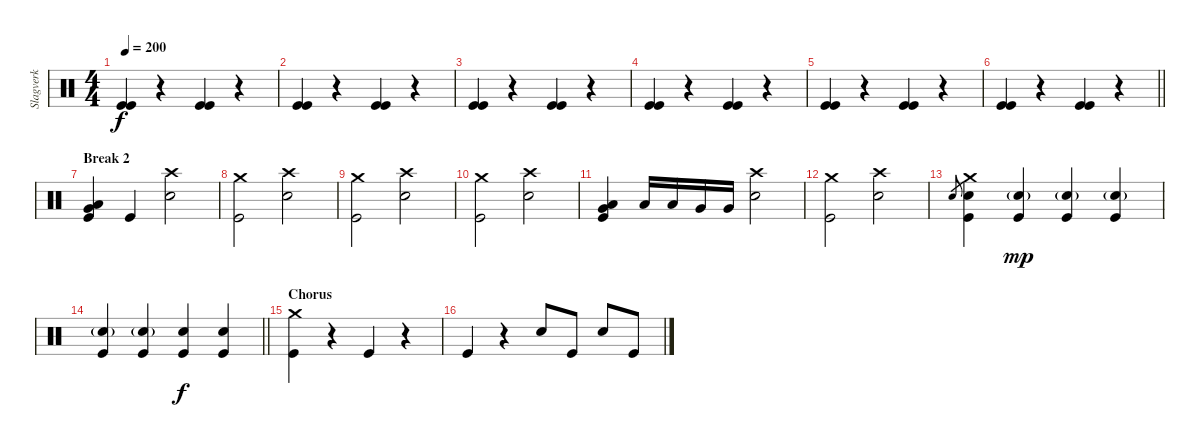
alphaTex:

\track ("Slagverk" "Slagverk") {instrument percussion}
\staff {score}
\articulation defaults
\ts (4 4)
\tempo 200
\clef neutral
\ks c
("Kick (hit)" "Kick (hit)").4{dy f} r.4 ("Kick (hit)" "Kick (hit)").4 r.4 |
("Kick (hit)" "Kick (hit)").4 r.4 ("Kick (hit)" "Kick (hit)").4 r.4 |
("Kick (hit)" "Kick (hit)").4 r.4 ("Kick (hit)" "Kick (hit)").4 r.4 |
("Kick (hit)" "Kick (hit)").4 r.4 ("Kick (hit)" "Kick (hit)").4 r.4 |
("Kick (hit)" "Kick (hit)").4 r.4 ("Kick (hit)" "Kick (hit)").4 r.4 |
\barLineRight lightlight
("Kick (hit)" "Kick (hit)").4 r.4 ("Kick (hit)" "Kick (hit)").4 r.4 |
\section ("" "Break 2")
("Low Floor Tom (hit)" "Very Low Tom (hit)" "Kick (hit)").4 "Kick (hit)".4 ("Crash high (hit)" "Snare (hit) 2").2 |
("Crash medium (hit)" "Kick (hit)").2 ("Crash high (hit)" "Snare (hit) 2").2 |
("Crash medium (hit)" "Kick (hit)").2 ("Crash high (hit)" "Snare (hit) 2").2 |
("Crash medium (hit)" "Kick (hit)").2 ("Crash high (hit)" "Snare (hit) 2").2 |
("Low Floor Tom (hit)" "Very Low Tom (hit)" "Kick (hit)").4 "Low Tom (hit)".16 "Low Tom (hit)".16 "Very Low Tom (hit)".16 "Very Low Tom (hit)".16 ("Crash high (hit)" "Snare (hit) 2").2 |
("Crash medium (hit)" "Kick (hit)").2 ("Crash high (hit)" "Snare (hit) 2").2 |
"Snare (hit) 2".8{gr} ("Crash medium (hit)" "Snare (hit) 2" "Kick (hit)").4 ("Snare (hit) 2"{g} "Kick (hit)").4{dy mp} ("Snare (hit) 2"{g} "Kick (hit)").4 ("Snare (hit) 2"{g} "Kick (hit)").4 |
\barLineRight lightlight
("Snare (hit) 2"{g} "Kick (hit)").4 ("Snare (hit) 2"{g} "Kick (hit)").4 ("Snare (hit) 2" "Kick (hit)").4{dy f} ("Snare (hit) 2" "Kick (hit)").4 |
\section ("" "Chorus")
("Crash medium (hit)" "Kick (hit)").4 r.4 "Kick (hit)".4 r.4 |
"Kick (hit)".4 r.4 "Snare (hit) 2".8 "Kick (hit)".8 "Snare (hit) 2".8 "Kick (hit)".8
